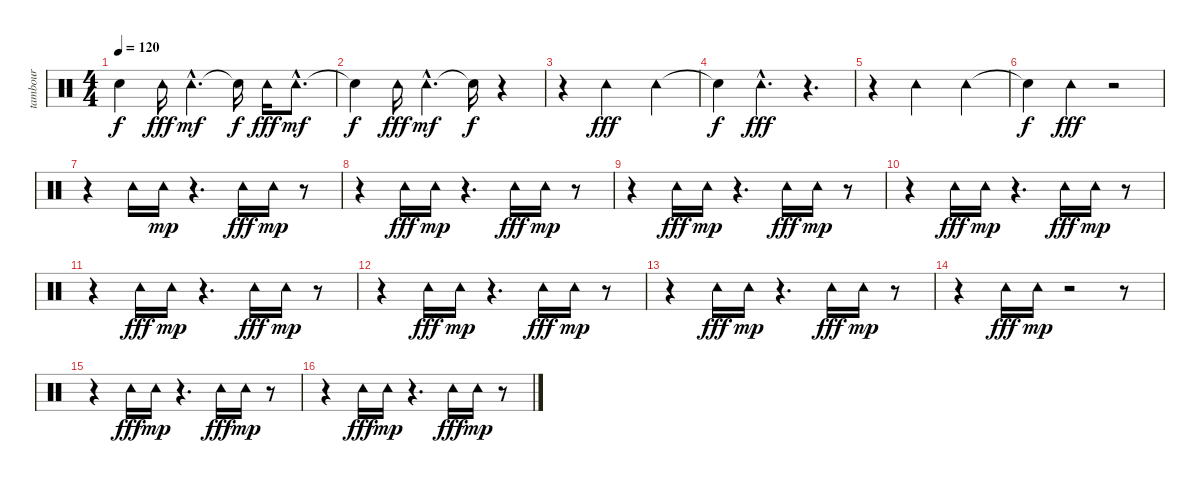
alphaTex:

\track ("tambour" "tambour") {instrument percussion}
\staff {score}
\articulation defaults
\ts (4 4)
\tempo 120
\clef neutral
\ks c "Snare (hit)"{t}.4{dy f} "Tambourine (hit)".16{dy fff} "Tambourine (hit)"{hac}.4{d dy mf} "Snare (hit)"{t}.16{dy f} "Tambourine (hit)".16{dy fff} "Tambourine (hit)"{hac}.8{d dy mf}
|
"Snare (hit)"{t}.4{dy f} "Tambourine (hit)".16{dy fff} "Tambourine (hit)"{hac}.4{d dy mf} "Snare (hit)"{t}.16{dy f} r.4 |
r.4 "Tambourine (hit)".2{dy fff} "Tambourine (hit)".4 |
"Snare (hit)"{t}.4{dy f} "Tambourine (hit)"{hac}.4{d dy fff} r.4{d} |
r.4 "Tambourine (hit)".2 "Tambourine (hit)".4 |
"Snare (hit)"{t}.4{dy f} "Tambourine (hit)".4{dy fff} r.2 |
r.4 "Tambourine (hit)".16 "Tambourine (hit)".16{dy mp} r.4{d} "Tambourine (hit)".16{dy fff} "Tambourine (hit)".16{dy mp} r.8 |
r.4 "Tambourine (hit)".16{dy fff} "Tambourine (hit)".16{dy mp} r.4{d} "Tambourine (hit)".16{dy fff} "Tambourine (hit)".16{dy mp} r.8 |
r.4 "Tambourine (hit)".16{dy fff} "Tambourine (hit)".16{dy mp} r.4{d} "Tambourine (hit)".16{dy fff} "Tambourine (hit)".16{dy mp} r.8 |
r.4 "Tambourine (hit)".16{dy fff} "Tambourine (hit)".16{dy mp} r.4{d} "Tambourine (hit)".16{dy fff} "Tambourine (hit)".16{dy mp} r.8 |
r.4 "Tambourine (hit)".16{dy fff} "Tambourine (hit)".16{dy mp} r.4{d} "Tambourine (hit)".16{dy fff} "Tambourine (hit)".16{dy mp} r.8 |
r.4 "Tambourine (hit)".16{dy fff} "Tambourine (hit)".16{dy mp} r.4{d} "Tambourine (hit)".16{dy fff} "Tambourine (hit)".16{dy mp} r.8 |
r.4 "Tambourine (hit)".16{dy fff} "Tambourine (hit)".16{dy mp} r.4{d} "Tambourine (hit)".16{dy fff} "Tambourine (hit)".16{dy mp} r.8 |
r.4 "Tambourine (hit)".16{dy fff} "Tambourine (hit)".16{dy mp} r.2 r.8 |
r.4 "Tambourine (hit)".16{dy fff} "Tambourine (hit)".16{dy mp} r.4{d} "Tambourine (hit)".16{dy fff} "Tambourine (hit)".16{dy mp} r.8 |
r.4 "Tambourine (hit)".16{dy fff} "Tambourine (hit)".16{dy mp} r.4{d} "Tambourine (hit)".16{dy fff} "Tambourine (hit)".16{dy mp} r.8
